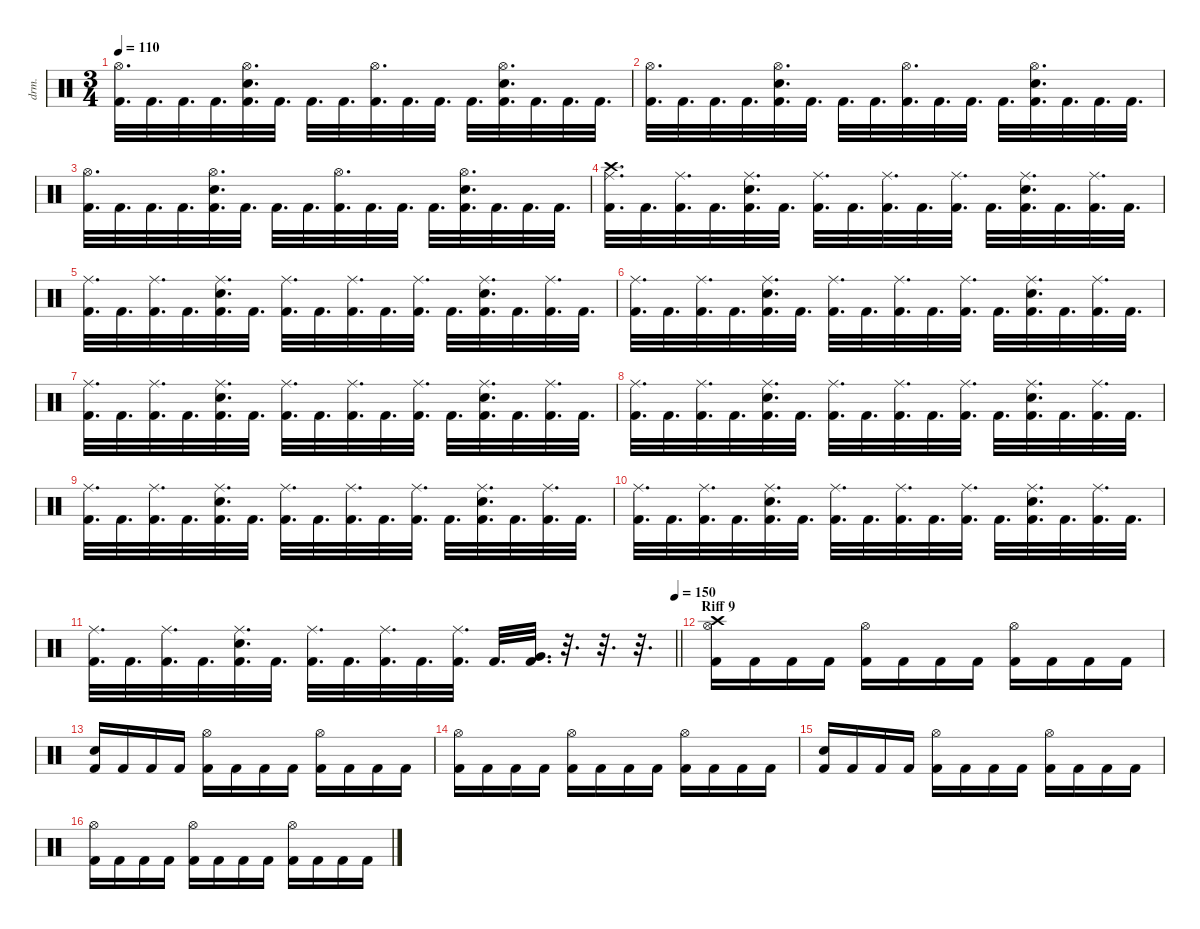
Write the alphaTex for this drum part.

\defaultSystemsLayout 4
\hideDynamics
\bracketExtendMode nobrackets
\otherSystemsTrackNameOrientation horizontal
\track ("Drums" "drm.") {instrument percussion}
\staff {score}
\articulation defaults
\ts (3 4)
\tempo 110
\clef neutral
\ks c
("Hi-Hat (open)" "Kick (hit) 2").32{d dy f} "Kick (hit) 2".32{d} "Kick (hit) 2".32{d} "Kick (hit) 2".32{d} ("Hi-Hat (open)" "Snare (hit) 2" "Kick (hit) 2").32{d} "Kick (hit) 2".32{d} "Kick (hit) 2".32{d} "Kick (hit) 2".32{d} ("Hi-Hat (open)" "Kick (hit) 2").32{d} "Kick (hit) 2".32{d} "Kick (hit) 2".32{d} "Kick (hit) 2".32{d} ("Hi-Hat (open)" "Snare (hit) 2" "Kick (hit) 2").32{d} "Kick (hit) 2".32{d} "Kick (hit) 2".32{d} "Kick (hit) 2".32{d} |
("Hi-Hat (open)" "Kick (hit) 2").32{d} "Kick (hit) 2".32{d} "Kick (hit) 2".32{d} "Kick (hit) 2".32{d} ("Hi-Hat (open)" "Snare (hit) 2" "Kick (hit) 2").32{d} "Kick (hit) 2".32{d} "Kick (hit) 2".32{d} "Kick (hit) 2".32{d} ("Hi-Hat (open)" "Kick (hit) 2").32{d} "Kick (hit) 2".32{d} "Kick (hit) 2".32{d} "Kick (hit) 2".32{d} ("Hi-Hat (open)" "Snare (hit) 2" "Kick (hit) 2").32{d} "Kick (hit) 2".32{d} "Kick (hit) 2".32{d} "Kick (hit) 2".32{d} |
("Hi-Hat (open)" "Kick (hit) 2").32{d} "Kick (hit) 2".32{d} "Kick (hit) 2".32{d} "Kick (hit) 2".32{d} ("Hi-Hat (open)" "Snare (hit) 2" "Kick (hit) 2").32{d} "Kick (hit) 2".32{d} "Kick (hit) 2".32{d} "Kick (hit) 2".32{d} ("Hi-Hat (open)" "Kick (hit) 2").32{d} "Kick (hit) 2".32{d} "Kick (hit) 2".32{d} "Kick (hit) 2".32{d} ("Hi-Hat (open)" "Snare (hit) 2" "Kick (hit) 2").32{d} "Kick (hit) 2".32{d} "Kick (hit) 2".32{d} "Kick (hit) 2".32{d} |
("Ride (middle)" "Crash high (hit)" "Kick (hit) 2").32{d} "Kick (hit) 2".32{d} ("Ride (middle)" "Kick (hit) 2").32{d} "Kick (hit) 2".32{d} ("Ride (middle)" "Snare (hit) 2" "Kick (hit) 2").32{d} "Kick (hit) 2".32{d} ("Ride (middle)" "Kick (hit) 2").32{d} "Kick (hit) 2".32{d} ("Ride (middle)" "Kick (hit) 2").32{d} "Kick (hit) 2".32{d} ("Ride (middle)" "Kick (hit) 2").32{d} "Kick (hit) 2".32{d} ("Ride (middle)" "Snare (hit) 2" "Kick (hit) 2").32{d} "Kick (hit) 2".32{d} ("Ride (middle)" "Kick (hit) 2").32{d} "Kick (hit) 2".32{d} |
("Ride (middle)" "Kick (hit) 2").32{d} "Kick (hit) 2".32{d} ("Ride (middle)" "Kick (hit) 2").32{d} "Kick (hit) 2".32{d} ("Ride (middle)" "Snare (hit) 2" "Kick (hit) 2").32{d} "Kick (hit) 2".32{d} ("Ride (middle)" "Kick (hit) 2").32{d} "Kick (hit) 2".32{d} ("Ride (middle)" "Kick (hit) 2").32{d} "Kick (hit) 2".32{d} ("Ride (middle)" "Kick (hit) 2").32{d} "Kick (hit) 2".32{d} ("Ride (middle)" "Snare (hit) 2" "Kick (hit) 2").32{d} "Kick (hit) 2".32{d} ("Ride (middle)" "Kick (hit) 2").32{d} "Kick (hit) 2".32{d} |
("Ride (middle)" "Kick (hit) 2").32{d} "Kick (hit) 2".32{d} ("Ride (middle)" "Kick (hit) 2").32{d} "Kick (hit) 2".32{d} ("Ride (middle)" "Snare (hit) 2" "Kick (hit) 2").32{d} "Kick (hit) 2".32{d} ("Ride (middle)" "Kick (hit) 2").32{d} "Kick (hit) 2".32{d} ("Ride (middle)" "Kick (hit) 2").32{d} "Kick (hit) 2".32{d} ("Ride (middle)" "Kick (hit) 2").32{d} "Kick (hit) 2".32{d} ("Ride (middle)" "Snare (hit) 2" "Kick (hit) 2").32{d} "Kick (hit) 2".32{d} ("Ride (middle)" "Kick (hit) 2").32{d} "Kick (hit) 2".32{d} |
("Ride (middle)" "Kick (hit) 2").32{d} "Kick (hit) 2".32{d} ("Ride (middle)" "Kick (hit) 2").32{d} "Kick (hit) 2".32{d} ("Ride (middle)" "Snare (hit) 2" "Kick (hit) 2").32{d} "Kick (hit) 2".32{d} ("Ride (middle)" "Kick (hit) 2").32{d} "Kick (hit) 2".32{d} ("Ride (middle)" "Kick (hit) 2").32{d} "Kick (hit) 2".32{d} ("Ride (middle)" "Kick (hit) 2").32{d} "Kick (hit) 2".32{d} ("Ride (middle)" "Snare (hit) 2" "Kick (hit) 2").32{d} "Kick (hit) 2".32{d} ("Ride (middle)" "Kick (hit) 2").32{d} "Kick (hit) 2".32{d} |
("Ride (middle)" "Kick (hit) 2").32{d} "Kick (hit) 2".32{d} ("Ride (middle)" "Kick (hit) 2").32{d} "Kick (hit) 2".32{d} ("Ride (middle)" "Snare (hit) 2" "Kick (hit) 2").32{d} "Kick (hit) 2".32{d} ("Ride (middle)" "Kick (hit) 2").32{d} "Kick (hit) 2".32{d} ("Ride (middle)" "Kick (hit) 2").32{d} "Kick (hit) 2".32{d} ("Ride (middle)" "Kick (hit) 2").32{d} "Kick (hit) 2".32{d} ("Ride (middle)" "Snare (hit) 2" "Kick (hit) 2").32{d} "Kick (hit) 2".32{d} ("Ride (middle)" "Kick (hit) 2").32{d} "Kick (hit) 2".32{d} |
("Ride (middle)" "Kick (hit) 2").32{d} "Kick (hit) 2".32{d} ("Ride (middle)" "Kick (hit) 2").32{d} "Kick (hit) 2".32{d} ("Ride (middle)" "Snare (hit) 2" "Kick (hit) 2").32{d} "Kick (hit) 2".32{d} ("Ride (middle)" "Kick (hit) 2").32{d} "Kick (hit) 2".32{d} ("Ride (middle)" "Kick (hit) 2").32{d} "Kick (hit) 2".32{d} ("Ride (middle)" "Kick (hit) 2").32{d} "Kick (hit) 2".32{d} ("Ride (middle)" "Snare (hit) 2" "Kick (hit) 2").32{d} "Kick (hit) 2".32{d} ("Ride (middle)" "Kick (hit) 2").32{d} "Kick (hit) 2".32{d} |
("Ride (middle)" "Kick (hit) 2").32{d} "Kick (hit) 2".32{d} ("Ride (middle)" "Kick (hit) 2").32{d} "Kick (hit) 2".32{d} ("Ride (middle)" "Snare (hit) 2" "Kick (hit) 2").32{d} "Kick (hit) 2".32{d} ("Ride (middle)" "Kick (hit) 2").32{d} "Kick (hit) 2".32{d} ("Ride (middle)" "Kick (hit) 2").32{d} "Kick (hit) 2".32{d} ("Ride (middle)" "Kick (hit) 2").32{d} "Kick (hit) 2".32{d} ("Ride (middle)" "Snare (hit) 2" "Kick (hit) 2").32{d} "Kick (hit) 2".32{d} ("Ride (middle)" "Kick (hit) 2").32{d} "Kick (hit) 2".32{d} |
\tempo (150 1)
\barLineRight lightlight
("Ride (middle)" "Kick (hit) 2").32{d} "Kick (hit) 2".32{d} ("Ride (middle)" "Kick (hit) 2").32{d} "Kick (hit) 2".32{d} ("Ride (middle)" "Snare (hit) 2" "Kick (hit) 2").32{d} "Kick (hit) 2".32{d} ("Ride (middle)" "Kick (hit) 2").32{d} "Kick (hit) 2".32{d} ("Ride (middle)" "Kick (hit) 2").32{d} "Kick (hit) 2".32{d} ("Ride (middle)" "Kick (hit) 2").32{d} "Kick (hit) 2".32{d} ("Very Low Tom (hit)" "Kick (hit) 2").32{d} r.32{d} r.32{d} r.32{d} |
\section ("" "Riff 9")
("Crash high (hit)" "Hi-Hat (open)" "Kick (hit) 2").16 "Kick (hit) 2".16 "Kick (hit) 2".16 "Kick (hit) 2".16 ("Hi-Hat (open)" "Kick (hit) 2").16 "Kick (hit) 2".16 "Kick (hit) 2".16 "Kick (hit) 2".16 ("Hi-Hat (open)" "Kick (hit) 2").16 "Kick (hit) 2".16 "Kick (hit) 2".16 "Kick (hit) 2".16 |
("Snare (hit) 2" "Kick (hit) 2").16 "Kick (hit) 2".16 "Kick (hit) 2".16 "Kick (hit) 2".16 ("Hi-Hat (open)" "Kick (hit) 2").16 "Kick (hit) 2".16 "Kick (hit) 2".16 "Kick (hit) 2".16 ("Hi-Hat (open)" "Kick (hit) 2").16 "Kick (hit) 2".16 "Kick (hit) 2".16 "Kick (hit) 2".16 |
("Hi-Hat (open)" "Kick (hit) 2").16 "Kick (hit) 2".16 "Kick (hit) 2".16 "Kick (hit) 2".16 ("Hi-Hat (open)" "Kick (hit) 2").16 "Kick (hit) 2".16 "Kick (hit) 2".16 "Kick (hit) 2".16 ("Hi-Hat (open)" "Kick (hit) 2").16 "Kick (hit) 2".16 "Kick (hit) 2".16 "Kick (hit) 2".16 |
("Snare (hit) 2" "Kick (hit) 2").16 "Kick (hit) 2".16 "Kick (hit) 2".16 "Kick (hit) 2".16 ("Hi-Hat (open)" "Kick (hit) 2").16 "Kick (hit) 2".16 "Kick (hit) 2".16 "Kick (hit) 2".16 ("Hi-Hat (open)" "Kick (hit) 2").16 "Kick (hit) 2".16 "Kick (hit) 2".16 "Kick (hit) 2".16 |
("Hi-Hat (open)" "Kick (hit) 2").16 "Kick (hit) 2".16 "Kick (hit) 2".16 "Kick (hit) 2".16 ("Hi-Hat (open)" "Kick (hit) 2").16 "Kick (hit) 2".16 "Kick (hit) 2".16 "Kick (hit) 2".16 ("Hi-Hat (open)" "Kick (hit) 2").16 "Kick (hit) 2".16 "Kick (hit) 2".16 "Kick (hit) 2".16
